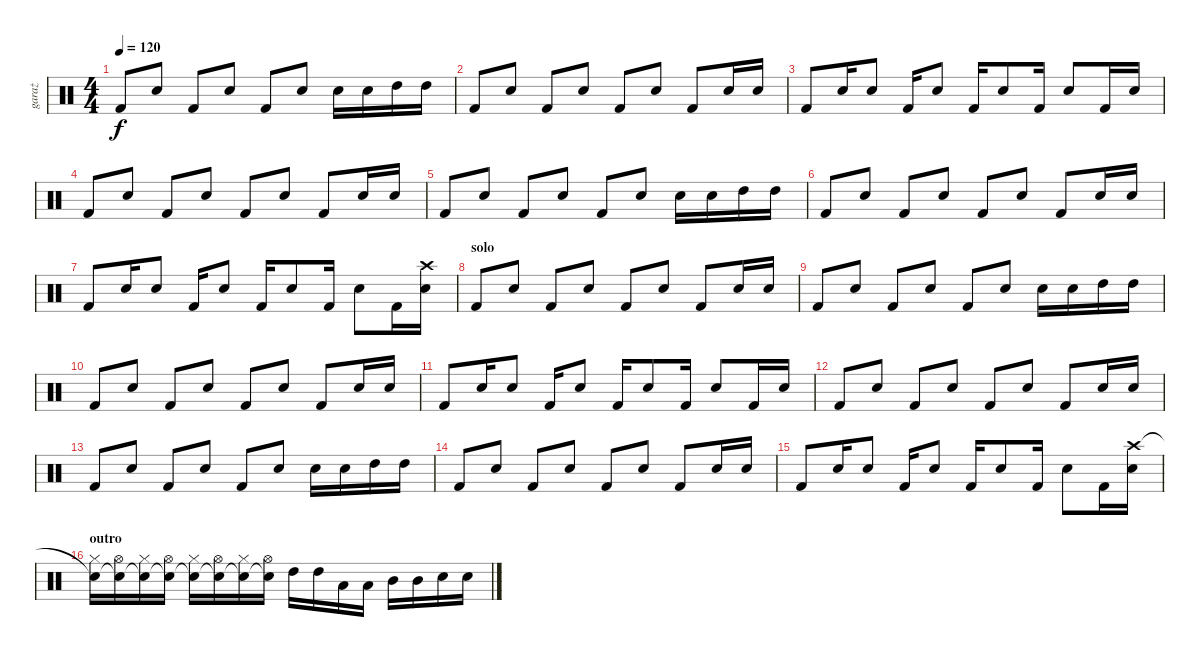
\track ("garaż" "garaż") {instrument percussion}
\staff {score}
\articulation defaults
\ts (4 4)
\tempo 120
\clef neutral
\ks c "Kick (hit) 2".8{dy f} "Snare (hit) 2".8 "Kick (hit) 2".8 "Snare (hit) 2".8 "Kick (hit) 2".8 "Snare (hit) 2".8 "Snare (hit) 2".16 "Snare (hit) 2".16 "High Tom (hit)".16 "High Tom (hit)".16
|
"Kick (hit) 2".8 "Snare (hit) 2".8 "Kick (hit) 2".8 "Snare (hit) 2".8 "Kick (hit) 2".8 "Snare (hit) 2".8 "Kick (hit) 2".8 "Snare (hit) 2".16 "Snare (hit) 2".16 |
"Kick (hit) 2".8 "Snare (hit) 2".16 "Snare (hit) 2".8 "Kick (hit) 2".16 "Snare (hit) 2".8 "Kick (hit) 2".16 "Snare (hit) 2".8 "Kick (hit) 2".16 "Snare (hit) 2".8 "Kick (hit) 2".16 "Snare (hit) 2".16 |
"Kick (hit) 2".8 "Snare (hit) 2".8 "Kick (hit) 2".8 "Snare (hit) 2".8 "Kick (hit) 2".8 "Snare (hit) 2".8 "Kick (hit) 2".8 "Snare (hit) 2".16 "Snare (hit) 2".16 |
"Kick (hit) 2".8 "Snare (hit) 2".8 "Kick (hit) 2".8 "Snare (hit) 2".8 "Kick (hit) 2".8 "Snare (hit) 2".8 "Snare (hit) 2".16 "Snare (hit) 2".16 "High Tom (hit)".16 "High Tom (hit)".16 |
"Kick (hit) 2".8 "Snare (hit) 2".8 "Kick (hit) 2".8 "Snare (hit) 2".8 "Kick (hit) 2".8 "Snare (hit) 2".8 "Kick (hit) 2".8 "Snare (hit) 2".16 "Snare (hit) 2".16 |
"Kick (hit) 2".8 "Snare (hit) 2".16 "Snare (hit) 2".8 "Kick (hit) 2".16 "Snare (hit) 2".8 "Kick (hit) 2".16 "Snare (hit) 2".8 "Kick (hit) 2".16 "Snare (hit) 2".8 "Kick (hit) 2".16 ("Crash high (hit)" "Snare (hit) 2").16 |
\section ("" "solo")
"Kick (hit) 2".8 "Snare (hit) 2".8 "Kick (hit) 2".8 "Snare (hit) 2".8 "Kick (hit) 2".8 "Snare (hit) 2".8 "Kick (hit) 2".8 "Snare (hit) 2".16 "Snare (hit) 2".16 |
"Kick (hit) 2".8 "Snare (hit) 2".8 "Kick (hit) 2".8 "Snare (hit) 2".8 "Kick (hit) 2".8 "Snare (hit) 2".8 "Snare (hit) 2".16 "Snare (hit) 2".16 "High Tom (hit)".16 "High Tom (hit)".16 |
"Kick (hit) 2".8 "Snare (hit) 2".8 "Kick (hit) 2".8 "Snare (hit) 2".8 "Kick (hit) 2".8 "Snare (hit) 2".8 "Kick (hit) 2".8 "Snare (hit) 2".16 "Snare (hit) 2".16 |
"Kick (hit) 2".8 "Snare (hit) 2".16 "Snare (hit) 2".8 "Kick (hit) 2".16 "Snare (hit) 2".8 "Kick (hit) 2".16 "Snare (hit) 2".8 "Kick (hit) 2".16 "Snare (hit) 2".8 "Kick (hit) 2".16 "Snare (hit) 2".16 |
"Kick (hit) 2".8 "Snare (hit) 2".8 "Kick (hit) 2".8 "Snare (hit) 2".8 "Kick (hit) 2".8 "Snare (hit) 2".8 "Kick (hit) 2".8 "Snare (hit) 2".16 "Snare (hit) 2".16 |
"Kick (hit) 2".8 "Snare (hit) 2".8 "Kick (hit) 2".8 "Snare (hit) 2".8 "Kick (hit) 2".8 "Snare (hit) 2".8 "Snare (hit) 2".16 "Snare (hit) 2".16 "High Tom (hit)".16 "High Tom (hit)".16 |
"Kick (hit) 2".8 "Snare (hit) 2".8 "Kick (hit) 2".8 "Snare (hit) 2".8 "Kick (hit) 2".8 "Snare (hit) 2".8 "Kick (hit) 2".8 "Snare (hit) 2".16 "Snare (hit) 2".16 |
"Kick (hit) 2".8 "Snare (hit) 2".16 "Snare (hit) 2".8 "Kick (hit) 2".16 "Snare (hit) 2".8 "Kick (hit) 2".16 "Snare (hit) 2".8 "Kick (hit) 2".16 "Snare (hit) 2".8 "Kick (hit) 2".16 ("Crash high (hit)" "Snare (hit) 2").16 |
\section ("" "outro")
("Snare (hit)"{t} "Hi-Hat (closed)").16 ("Snare (hit)"{t} "Hi-Hat (open)").16 ("Snare (hit)"{t} "Hi-Hat (closed)").16 ("Snare (hit)"{t} "Hi-Hat (open)").16 ("Snare (hit)"{t} "Hi-Hat (closed)").16 ("Snare (hit)"{t} "Hi-Hat (open)").16 ("Snare (hit)"{t} "Hi-Hat (closed)").16 ("Snare (hit)"{t} "Hi-Hat (open)").16 "High Tom (hit)".16 "High Tom (hit)".16 "Low Tom (hit)".16 "Low Tom (hit)".16 "Mid Tom (hit)".16 "Mid Tom (hit)".16 "Snare (hit) 2".16 "Snare (hit) 2".16
